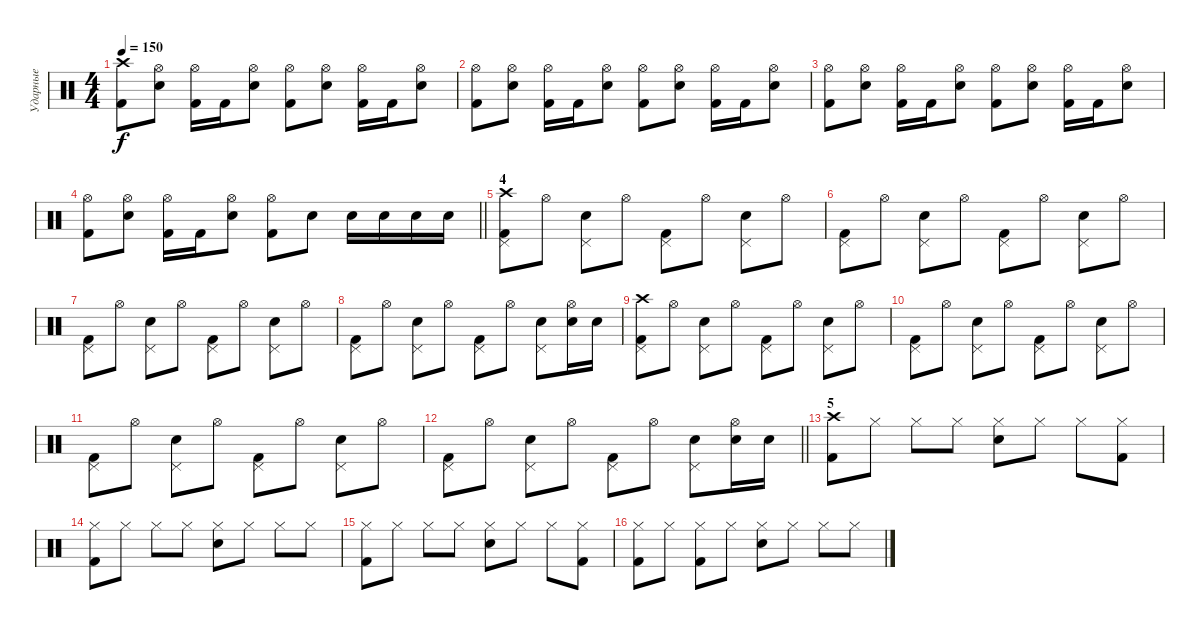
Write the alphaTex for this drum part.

\track ("Ударные" "Ударные") {instrument percussion}
\staff {score}
\articulation defaults
\ts (4 4)
\tempo 150
\clef neutral
\ks c
("Crash high (hit)" "Kick (hit) 2").8{dy f} ("Hi-Hat (open)" "Electric Snare (hit)").8 ("Hi-Hat (open)" "Kick (hit) 2").16 "Kick (hit) 2".16 ("Hi-Hat (open)" "Electric Snare (hit)").8 ("Hi-Hat (open)" "Kick (hit) 2").8 ("Hi-Hat (open)" "Electric Snare (hit)").8 ("Hi-Hat (open)" "Kick (hit) 2").16 "Kick (hit) 2".16 ("Hi-Hat (open)" "Electric Snare (hit)").8 |
("Hi-Hat (open)" "Kick (hit) 2").8 ("Hi-Hat (open)" "Electric Snare (hit)").8 ("Hi-Hat (open)" "Kick (hit) 2").16 "Kick (hit) 2".16 ("Hi-Hat (open)" "Electric Snare (hit)").8 ("Hi-Hat (open)" "Kick (hit) 2").8 ("Hi-Hat (open)" "Electric Snare (hit)").8 ("Hi-Hat (open)" "Kick (hit) 2").16 "Kick (hit) 2".16 ("Hi-Hat (open)" "Electric Snare (hit)").8 |
("Hi-Hat (open)" "Kick (hit) 2").8 ("Hi-Hat (open)" "Electric Snare (hit)").8 ("Hi-Hat (open)" "Kick (hit) 2").16 "Kick (hit) 2".16 ("Hi-Hat (open)" "Electric Snare (hit)").8 ("Hi-Hat (open)" "Kick (hit) 2").8 ("Hi-Hat (open)" "Electric Snare (hit)").8 ("Hi-Hat (open)" "Kick (hit) 2").16 "Kick (hit) 2".16 ("Hi-Hat (open)" "Electric Snare (hit)").8 |
\barLineRight lightlight
("Hi-Hat (open)" "Kick (hit) 2").8 ("Hi-Hat (open)" "Electric Snare (hit)").8 ("Hi-Hat (open)" "Kick (hit) 2").16 "Kick (hit) 2".16 ("Hi-Hat (open)" "Electric Snare (hit)").8 ("Hi-Hat (open)" "Kick (hit) 2").8 "Electric Snare (hit)".8 "Electric Snare (hit)".16 "Electric Snare (hit)".16 "Electric Snare (hit)".16 "Electric Snare (hit)".16 |
\section ("" "4")
("Pedal Hi-Hat (hit)" "Crash high (hit)" "Kick (hit) 2").8 "Hi-Hat (open)".8 ("Pedal Hi-Hat (hit)" "Electric Snare (hit)").8 "Hi-Hat (open)".8 ("Pedal Hi-Hat (hit)" "Kick (hit) 2").8 "Hi-Hat (open)".8 ("Pedal Hi-Hat (hit)" "Electric Snare (hit)").8 "Hi-Hat (open)".8 |
("Pedal Hi-Hat (hit)" "Kick (hit) 2").8 "Hi-Hat (open)".8 ("Pedal Hi-Hat (hit)" "Electric Snare (hit)").8 "Hi-Hat (open)".8 ("Pedal Hi-Hat (hit)" "Kick (hit) 2").8 "Hi-Hat (open)".8 ("Pedal Hi-Hat (hit)" "Electric Snare (hit)").8 "Hi-Hat (open)".8 |
("Pedal Hi-Hat (hit)" "Kick (hit) 2").8 "Hi-Hat (open)".8 ("Pedal Hi-Hat (hit)" "Electric Snare (hit)").8 "Hi-Hat (open)".8 ("Pedal Hi-Hat (hit)" "Kick (hit) 2").8 "Hi-Hat (open)".8 ("Pedal Hi-Hat (hit)" "Electric Snare (hit)").8 "Hi-Hat (open)".8 |
("Pedal Hi-Hat (hit)" "Kick (hit) 2").8 "Hi-Hat (open)".8 ("Pedal Hi-Hat (hit)" "Electric Snare (hit)").8 "Hi-Hat (open)".8 ("Pedal Hi-Hat (hit)" "Kick (hit) 2").8 "Hi-Hat (open)".8 ("Pedal Hi-Hat (hit)" "Electric Snare (hit)").8 ("Hi-Hat (open)" "Electric Snare (hit)").16 "Electric Snare (hit)".16 |
("Pedal Hi-Hat (hit)" "Crash high (hit)" "Kick (hit) 2").8 "Hi-Hat (open)".8 ("Pedal Hi-Hat (hit)" "Electric Snare (hit)").8 "Hi-Hat (open)".8 ("Pedal Hi-Hat (hit)" "Kick (hit) 2").8 "Hi-Hat (open)".8 ("Pedal Hi-Hat (hit)" "Electric Snare (hit)").8 "Hi-Hat (open)".8 |
("Pedal Hi-Hat (hit)" "Kick (hit) 2").8 "Hi-Hat (open)".8 ("Pedal Hi-Hat (hit)" "Electric Snare (hit)").8 "Hi-Hat (open)".8 ("Pedal Hi-Hat (hit)" "Kick (hit) 2").8 "Hi-Hat (open)".8 ("Pedal Hi-Hat (hit)" "Electric Snare (hit)").8 "Hi-Hat (open)".8 |
("Pedal Hi-Hat (hit)" "Kick (hit) 2").8 "Hi-Hat (open)".8 ("Pedal Hi-Hat (hit)" "Electric Snare (hit)").8 "Hi-Hat (open)".8 ("Pedal Hi-Hat (hit)" "Kick (hit) 2").8 "Hi-Hat (open)".8 ("Pedal Hi-Hat (hit)" "Electric Snare (hit)").8 "Hi-Hat (open)".8 |
\barLineRight lightlight
("Pedal Hi-Hat (hit)" "Kick (hit) 2").8 "Hi-Hat (open)".8 ("Pedal Hi-Hat (hit)" "Electric Snare (hit)").8 "Hi-Hat (open)".8 ("Pedal Hi-Hat (hit)" "Kick (hit) 2").8 "Hi-Hat (open)".8 ("Pedal Hi-Hat (hit)" "Electric Snare (hit)").8 ("Hi-Hat (open)" "Electric Snare (hit)").16 "Electric Snare (hit)".16 |
\section ("" "5")
("Crash high (hit)" "Kick (hit) 2").8 "Hi-Hat (closed)".8 "Hi-Hat (closed)".8 "Hi-Hat (closed)".8 ("Hi-Hat (closed)" "Electric Snare (hit)").8 "Hi-Hat (closed)".8 "Hi-Hat (closed)".8 ("Hi-Hat (closed)" "Kick (hit) 2").8 |
("Hi-Hat (closed)" "Kick (hit) 2").8 "Hi-Hat (closed)".8 "Hi-Hat (closed)".8 "Hi-Hat (closed)".8 ("Hi-Hat (closed)" "Electric Snare (hit)").8 "Hi-Hat (closed)".8 "Hi-Hat (closed)".8 "Hi-Hat (closed)".8 |
("Hi-Hat (closed)" "Kick (hit) 2").8 "Hi-Hat (closed)".8 "Hi-Hat (closed)".8 "Hi-Hat (closed)".8 ("Hi-Hat (closed)" "Electric Snare (hit)").8 "Hi-Hat (closed)".8 "Hi-Hat (closed)".8 ("Hi-Hat (closed)" "Kick (hit) 2").8 |
("Hi-Hat (closed)" "Kick (hit) 2").8 "Hi-Hat (closed)".8 ("Hi-Hat (closed)" "Kick (hit) 2").8 "Hi-Hat (closed)".8 ("Hi-Hat (closed)" "Electric Snare (hit)").8 "Hi-Hat (closed)".8 "Hi-Hat (closed)".8 "Hi-Hat (closed)".8
